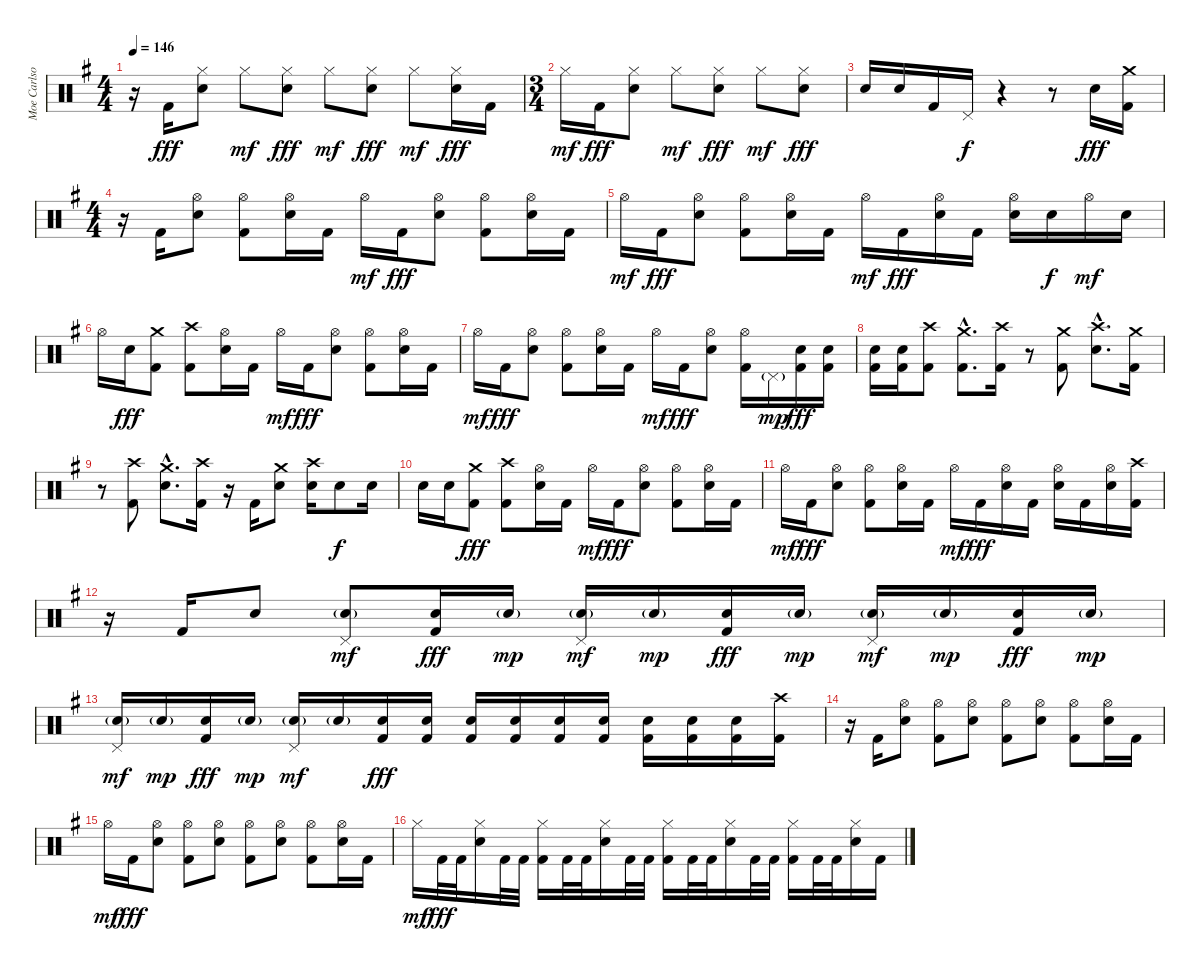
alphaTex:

\track ("Moe Carlson" "Moe Carlso") {instrument percussion}
\staff {score}
\articulation defaults
\ts (4 4)
\tempo 146
\clef neutral
\ks g
r.16{dy fff} "Kick (hit) 2".16 ("Hi-Hat (closed)" "Electric Snare (hit)").8 "Hi-Hat (closed)".8{dy mf} ("Hi-Hat (closed)" "Electric Snare (hit)").8{dy fff} "Hi-Hat (closed)".8{dy mf} ("Hi-Hat (closed)" "Electric Snare (hit)").8{dy fff} "Hi-Hat (closed)".8{dy mf} ("Hi-Hat (closed)" "Electric Snare (hit)").16{dy fff} "Kick (hit) 2".16 |
\ts (3 4)
"Hi-Hat (closed)".16{dy mf} "Kick (hit) 2".16{dy fff} ("Hi-Hat (closed)" "Electric Snare (hit)").8 "Hi-Hat (closed)".8{dy mf} ("Hi-Hat (closed)" "Electric Snare (hit)").8{dy fff} "Hi-Hat (closed)".8{dy mf} ("Hi-Hat (closed)" "Electric Snare (hit)").8{dy fff} |
"Electric Snare (hit)".16 "Electric Snare (hit)".16 "Kick (hit) 2".16 "Pedal Hi-Hat (hit)".16{dy f} r.4 r.8 "Electric Snare (hit)".16{dy fff} ("Crash medium (hit)" "Kick (hit) 2").16 |
\ts (4 4)
r.16 "Kick (hit) 2".16 ("Hi-Hat (open)" "Electric Snare (hit)").8 ("Hi-Hat (open)" "Kick (hit) 2").8 ("Hi-Hat (open)" "Electric Snare (hit)").16 "Kick (hit) 2".16 "Hi-Hat (open)".16{dy mf} "Kick (hit) 2".16{dy fff} ("Hi-Hat (open)" "Electric Snare (hit)").8 ("Hi-Hat (open)" "Kick (hit) 2").8 ("Hi-Hat (open)" "Electric Snare (hit)").16 "Kick (hit) 2".16 |
"Hi-Hat (open)".16{dy mf} "Kick (hit) 2".16{dy fff} ("Hi-Hat (open)" "Electric Snare (hit)").8 ("Hi-Hat (open)" "Kick (hit) 2").8 ("Hi-Hat (open)" "Electric Snare (hit)").16 "Kick (hit) 2".16 "Hi-Hat (open)".16{dy mf} "Kick (hit) 2".16{dy fff} ("Hi-Hat (open)" "Electric Snare (hit)").16 "Kick (hit) 2".16 ("Hi-Hat (open)" "Electric Snare (hit)").16 "Electric Snare (hit)".16{dy f} "Hi-Hat (open)".16{dy mf} "Electric Snare (hit)".16 |
"Hi-Hat (open)".16 "Electric Snare (hit)".16{dy fff} ("Crash medium (hit)" "Kick (hit) 2").8 ("Crash high (hit)" "Kick (hit) 2").8 ("Hi-Hat (open)" "Electric Snare (hit)").16 "Kick (hit) 2".16 "Hi-Hat (open)".16{dy mf} "Kick (hit) 2".16{dy fff} ("Hi-Hat (open)" "Electric Snare (hit)").8 ("Hi-Hat (open)" "Kick (hit) 2").8 ("Hi-Hat (open)" "Electric Snare (hit)").16 "Kick (hit) 2".16 |
"Hi-Hat (open)".16{dy mf} "Kick (hit) 2".16{dy fff} ("Hi-Hat (open)" "Electric Snare (hit)").8 ("Hi-Hat (open)" "Kick (hit) 2").8 ("Hi-Hat (open)" "Electric Snare (hit)").16 "Kick (hit) 2".16 "Hi-Hat (open)".16{dy mf} "Kick (hit) 2".16{dy fff} ("Hi-Hat (open)" "Electric Snare (hit)").8 ("Hi-Hat (open)" "Kick (hit) 2").16 "Pedal Hi-Hat (hit)"{g}.16{dy mp} ("Electric Snare (hit)" "Kick (hit) 2").16{dy fff} ("Electric Snare (hit)" "Kick (hit) 2").16 |
("Electric Snare (hit)" "Kick (hit) 2").16 ("Electric Snare (hit)" "Kick (hit) 2").16 ("Crash high (hit)" "Kick (hit) 2").8 ("Crash medium (hit)"{hac} "Kick (hit) 2"{hac}).8{d} ("Crash high (hit)" "Kick (hit) 2").16 r.8 ("Crash medium (hit)" "Kick (hit) 2").8 ("Crash high (hit)"{hac} "Electric Snare (hit)"{hac}).8{d} ("Crash medium (hit)" "Kick (hit) 2").16 |
r.8 ("Crash high (hit)" "Kick (hit) 2").8 ("Crash medium (hit)"{hac} "Electric Snare (hit)"{hac}).8{d} ("Crash high (hit)" "Kick (hit) 2").16 r.16 "Kick (hit) 2".16 ("Crash medium (hit)" "Electric Snare (hit)").8 ("Crash high (hit)" "Electric Snare (hit)").16 "Electric Snare (hit)".8{dy f} "Electric Snare (hit)".16 |
"Electric Snare (hit)".16 "Electric Snare (hit)".16 ("Crash medium (hit)" "Kick (hit) 2").8{dy fff} ("Crash high (hit)" "Kick (hit) 2").8 ("Hi-Hat (open)" "Electric Snare (hit)").16 "Kick (hit) 2".16 "Hi-Hat (open)".16{dy mf} "Kick (hit) 2".16{dy fff} ("Hi-Hat (open)" "Electric Snare (hit)").8 ("Hi-Hat (open)" "Kick (hit) 2").8 ("Hi-Hat (open)" "Electric Snare (hit)").16 "Kick (hit) 2".16 |
"Hi-Hat (open)".16{dy mf} "Kick (hit) 2".16{dy fff} ("Hi-Hat (open)" "Electric Snare (hit)").8 ("Hi-Hat (open)" "Kick (hit) 2").8 ("Hi-Hat (open)" "Electric Snare (hit)").16 "Kick (hit) 2".16 "Hi-Hat (open)".16{dy mf} "Kick (hit) 2".16{dy fff} ("Hi-Hat (open)" "Electric Snare (hit)").16 "Kick (hit) 2".16 ("Hi-Hat (open)" "Electric Snare (hit)").16 "Kick (hit) 2".16 ("Hi-Hat (open)" "Electric Snare (hit)").16 ("Crash high (hit)" "Kick (hit) 2").16 |
r.16 "Kick (hit) 2".16 "Electric Snare (hit)".8 ("Electric Snare (hit)"{g} "Pedal Hi-Hat (hit)").8{dy mf} ("Electric Snare (hit)" "Kick (hit) 2").16{dy fff} "Electric Snare (hit)"{g}.16{dy mp} ("Electric Snare (hit)"{g} "Pedal Hi-Hat (hit)").16{dy mf} "Electric Snare (hit)"{g}.16{dy mp} ("Electric Snare (hit)" "Kick (hit) 2").16{dy fff} "Electric Snare (hit)"{g}.16{dy mp} ("Electric Snare (hit)"{g} "Pedal Hi-Hat (hit)").16{dy mf} "Electric Snare (hit)"{g}.16{dy mp} ("Electric Snare (hit)" "Kick (hit) 2").16{dy fff} "Electric Snare (hit)"{g}.16{dy mp} |
("Electric Snare (hit)"{g} "Pedal Hi-Hat (hit)").16{dy mf} "Electric Snare (hit)"{g}.16{dy mp} ("Electric Snare (hit)" "Kick (hit) 2").16{dy fff} "Electric Snare (hit)"{g}.16{dy mp} ("Electric Snare (hit)"{g} "Pedal Hi-Hat (hit)").16{dy mf} "Electric Snare (hit)"{g}.16 ("Electric Snare (hit)" "Kick (hit) 2").16{dy fff} ("Electric Snare (hit)" "Kick (hit) 2").16 ("Electric Snare (hit)" "Kick (hit) 2").16 ("Electric Snare (hit)" "Kick (hit) 2").16 ("Electric Snare (hit)" "Kick (hit) 2").16 ("Electric Snare (hit)" "Kick (hit) 2").16 ("Electric Snare (hit)" "Kick (hit) 2").16 ("Electric Snare (hit)" "Kick (hit) 2").16 ("Electric Snare (hit)" "Kick (hit) 2").16 ("Crash high (hit)" "Kick (hit) 2").16 |
r.16 "Kick (hit) 2".16 ("Hi-Hat (open)" "Electric Snare (hit)").8 ("Hi-Hat (open)" "Kick (hit) 2").8 ("Hi-Hat (open)" "Electric Snare (hit)").8 ("Hi-Hat (open)" "Kick (hit) 2").8 ("Hi-Hat (open)" "Electric Snare (hit)").8 ("Hi-Hat (open)" "Kick (hit) 2").8 ("Hi-Hat (open)" "Electric Snare (hit)").16 "Kick (hit) 2".16 |
"Hi-Hat (open)".16{dy mf} "Kick (hit) 2".16{dy fff} ("Hi-Hat (open)" "Electric Snare (hit)").8 ("Hi-Hat (open)" "Kick (hit) 2").8 ("Hi-Hat (open)" "Electric Snare (hit)").8 ("Hi-Hat (open)" "Kick (hit) 2").8 ("Hi-Hat (open)" "Electric Snare (hit)").8 ("Hi-Hat (open)" "Kick (hit) 2").8 ("Hi-Hat (open)" "Electric Snare (hit)").16 "Kick (hit) 2".16 |
"Hi-Hat (closed)".16{dy mf} "Kick (hit) 2".32{dy fff} "Kick (hit) 2".32 ("Hi-Hat (closed)" "Electric Snare (hit)").16 "Kick (hit) 2".32 "Kick (hit) 2".32 ("Hi-Hat (closed)" "Kick (hit) 2").16 "Kick (hit) 2".32 "Kick (hit) 2".32 ("Hi-Hat (closed)" "Electric Snare (hit)").16 "Kick (hit) 2".32 "Kick (hit) 2".32 ("Hi-Hat (closed)" "Kick (hit) 2").16 "Kick (hit) 2".32 "Kick (hit) 2".32 ("Hi-Hat (closed)" "Electric Snare (hit)").16 "Kick (hit) 2".32 "Kick (hit) 2".32 ("Hi-Hat (closed)" "Kick (hit) 2").16 "Kick (hit) 2".32 "Kick (hit) 2".32 ("Hi-Hat (closed)" "Electric Snare (hit)").16 "Kick (hit) 2".16
